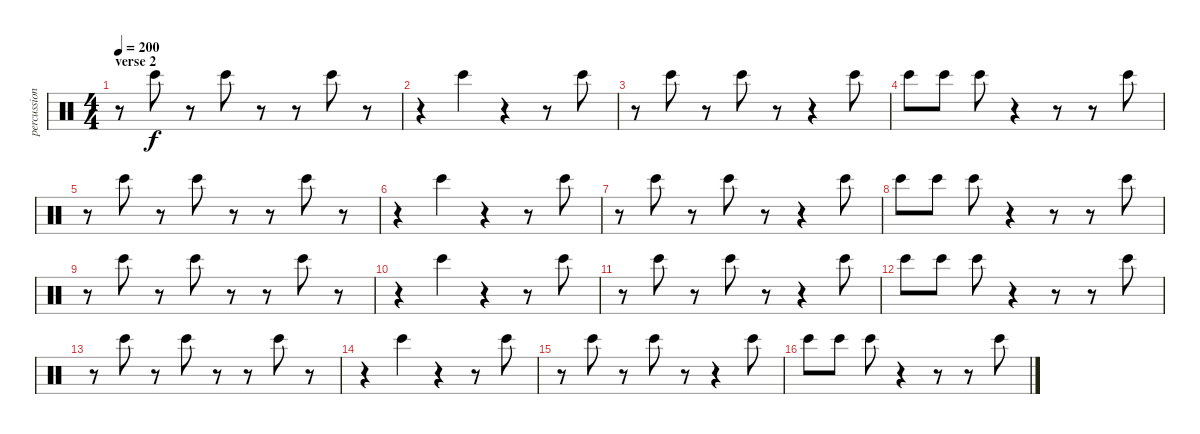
\track ("percussion" "percussion") {instrument percussion}
\staff {score}
\articulation defaults
\ts (4 4)
\section ("" "verse 2")
\tempo 200
\clef neutral
\ks c
r.8{dy f} "Bongo High (hit)".8 r.8 "Bongo High (hit)".8 r.8 r.8 "Bongo High (hit)".8 r.8 |
r.4 "Bongo High (hit)".4 r.4 r.8 "Bongo High (hit)".8 |
r.8 "Bongo High (hit)".8 r.8 "Bongo High (hit)".8 r.8 r.4 "Bongo High (hit)".8 |
"Bongo High (hit)".8 "Bongo High (hit)".8 "Bongo High (hit)".8 r.4 r.8 r.8 "Bongo High (hit)".8 |
r.8 "Bongo High (hit)".8 r.8 "Bongo High (hit)".8 r.8 r.8 "Bongo High (hit)".8 r.8 |
r.4 "Bongo High (hit)".4 r.4 r.8 "Bongo High (hit)".8 |
r.8 "Bongo High (hit)".8 r.8 "Bongo High (hit)".8 r.8 r.4 "Bongo High (hit)".8 |
"Bongo High (hit)".8 "Bongo High (hit)".8 "Bongo High (hit)".8 r.4 r.8 r.8 "Bongo High (hit)".8 |
r.8 "Bongo High (hit)".8 r.8 "Bongo High (hit)".8 r.8 r.8 "Bongo High (hit)".8 r.8 |
r.4 "Bongo High (hit)".4 r.4 r.8 "Bongo High (hit)".8 |
r.8 "Bongo High (hit)".8 r.8 "Bongo High (hit)".8 r.8 r.4 "Bongo High (hit)".8 |
"Bongo High (hit)".8 "Bongo High (hit)".8 "Bongo High (hit)".8 r.4 r.8 r.8 "Bongo High (hit)".8 |
r.8 "Bongo High (hit)".8 r.8 "Bongo High (hit)".8 r.8 r.8 "Bongo High (hit)".8 r.8 |
r.4 "Bongo High (hit)".4 r.4 r.8 "Bongo High (hit)".8 |
r.8 "Bongo High (hit)".8 r.8 "Bongo High (hit)".8 r.8 r.4 "Bongo High (hit)".8 |
"Bongo High (hit)".8 "Bongo High (hit)".8 "Bongo High (hit)".8 r.4 r.8 r.8 "Bongo High (hit)".8
